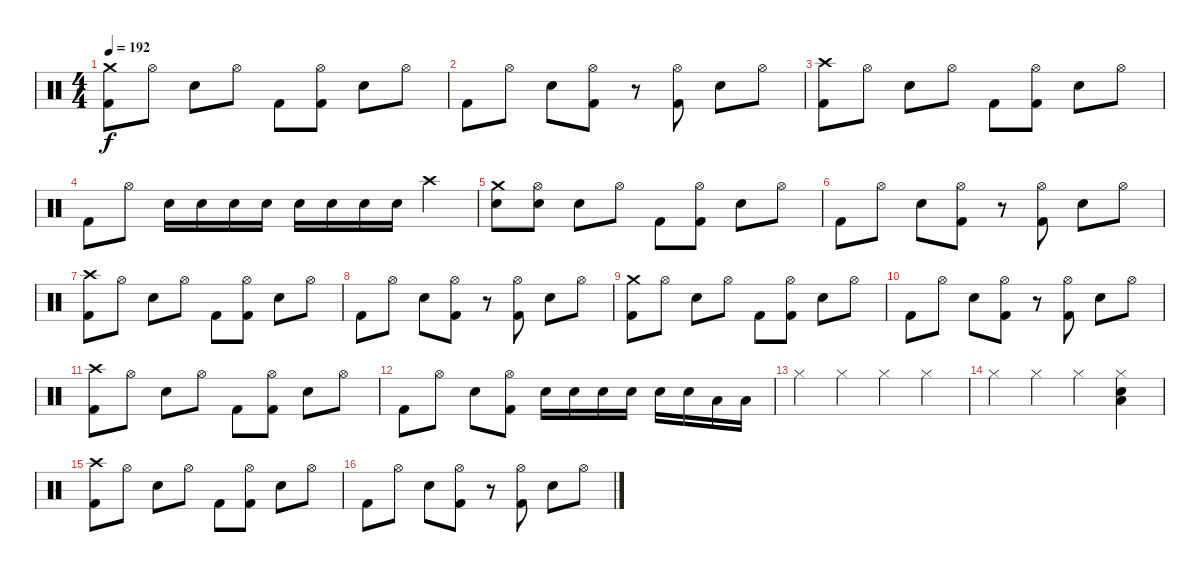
\track "" {instrument percussion}
\staff {score}
\articulation defaults
\ts (4 4)
\tempo 192
\clef neutral
\ks c
("Crash medium (hit)" "Kick (hit) 2").8{dy f} "Hi-Hat (open)".8 "Snare (hit) 2".8 "Hi-Hat (open)".8 "Kick (hit) 2".8 ("Hi-Hat (open)" "Kick (hit) 2").8 "Snare (hit) 2".8 "Hi-Hat (open)".8 |
"Kick (hit) 2".8 "Hi-Hat (open)".8 "Snare (hit) 2".8 ("Hi-Hat (open)" "Kick (hit) 2").8 r.8 ("Hi-Hat (open)" "Kick (hit) 2").8 "Snare (hit) 2".8 "Hi-Hat (open)".8 |
("Crash high (hit)" "Kick (hit) 2").8 "Hi-Hat (open)".8 "Snare (hit) 2".8 "Hi-Hat (open)".8 "Kick (hit) 2".8 ("Hi-Hat (open)" "Kick (hit) 2").8 "Snare (hit) 2".8 "Hi-Hat (open)".8 |
"Kick (hit) 2".8 "Hi-Hat (open)".8 "Snare (hit) 2".16 "Snare (hit) 2".16 "Snare (hit) 2".16 "Snare (hit) 2".16 "Snare (hit) 2".16 "Snare (hit) 2".16 "Snare (hit) 2".16 "Snare (hit) 2".16 "Crash high (hit)".4 |
("Crash medium (hit)" "Snare (hit) 2").8 ("Hi-Hat (open)" "Snare (hit) 2").8 "Snare (hit) 2".8 "Hi-Hat (open)".8 "Kick (hit) 2".8 ("Hi-Hat (open)" "Kick (hit) 2").8 "Snare (hit) 2".8 "Hi-Hat (open)".8 |
"Kick (hit) 2".8 "Hi-Hat (open)".8 "Snare (hit) 2".8 ("Hi-Hat (open)" "Kick (hit) 2").8 r.8 ("Hi-Hat (open)" "Kick (hit) 2").8 "Snare (hit) 2".8 "Hi-Hat (open)".8 |
("Crash high (hit)" "Kick (hit) 2").8 "Hi-Hat (open)".8 "Snare (hit) 2".8 "Hi-Hat (open)".8 "Kick (hit) 2".8 ("Hi-Hat (open)" "Kick (hit) 2").8 "Snare (hit) 2".8 "Hi-Hat (open)".8 |
"Kick (hit) 2".8 "Hi-Hat (open)".8 "Snare (hit) 2".8 ("Hi-Hat (open)" "Kick (hit) 2").8 r.8 ("Hi-Hat (open)" "Kick (hit) 2").8 "Snare (hit) 2".8 "Hi-Hat (open)".8 |
("Crash medium (hit)" "Kick (hit) 2").8 "Hi-Hat (open)".8 "Snare (hit) 2".8 "Hi-Hat (open)".8 "Kick (hit) 2".8 ("Hi-Hat (open)" "Kick (hit) 2").8 "Snare (hit) 2".8 "Hi-Hat (open)".8 |
"Kick (hit) 2".8 "Hi-Hat (open)".8 "Snare (hit) 2".8 ("Hi-Hat (open)" "Kick (hit) 2").8 r.8 ("Hi-Hat (open)" "Kick (hit) 2").8 "Snare (hit) 2".8 "Hi-Hat (open)".8 |
("Crash high (hit)" "Kick (hit) 2").8 "Hi-Hat (open)".8 "Snare (hit) 2".8 "Hi-Hat (open)".8 "Kick (hit) 2".8 ("Hi-Hat (open)" "Kick (hit) 2").8 "Snare (hit) 2".8 "Hi-Hat (open)".8 |
"Kick (hit) 2".8 "Hi-Hat (open)".8 "Snare (hit) 2".8 ("Hi-Hat (open)" "Kick (hit) 2").8 "Electric Snare (hit)".16 "Electric Snare (hit)".16 "Electric Snare (hit)".16 "Electric Snare (hit)".16 "Snare (hit) 2".16 "Snare (hit) 2".16 "Low Floor Tom (hit)".16 "Low Floor Tom (hit)".16 |
"Hi-Hat (closed)".4 "Hi-Hat (closed)".4 "Hi-Hat (closed)".4 "Hi-Hat (closed)".4 |
"Hi-Hat (closed)".4 "Hi-Hat (closed)".4 "Hi-Hat (closed)".4 ("Hi-Hat (closed)" "Low Floor Tom (hit)" "Snare (hit) 2").4 |
("Crash high (hit)" "Kick (hit) 2").8 "Hi-Hat (open)".8 "Snare (hit) 2".8 "Hi-Hat (open)".8 "Kick (hit) 2".8 ("Hi-Hat (open)" "Kick (hit) 2").8 "Snare (hit) 2".8 "Hi-Hat (open)".8 |
"Kick (hit) 2".8 "Hi-Hat (open)".8 "Snare (hit) 2".8 ("Hi-Hat (open)" "Kick (hit) 2").8 r.8 ("Hi-Hat (open)" "Kick (hit) 2").8 "Snare (hit) 2".8 "Hi-Hat (open)".8
